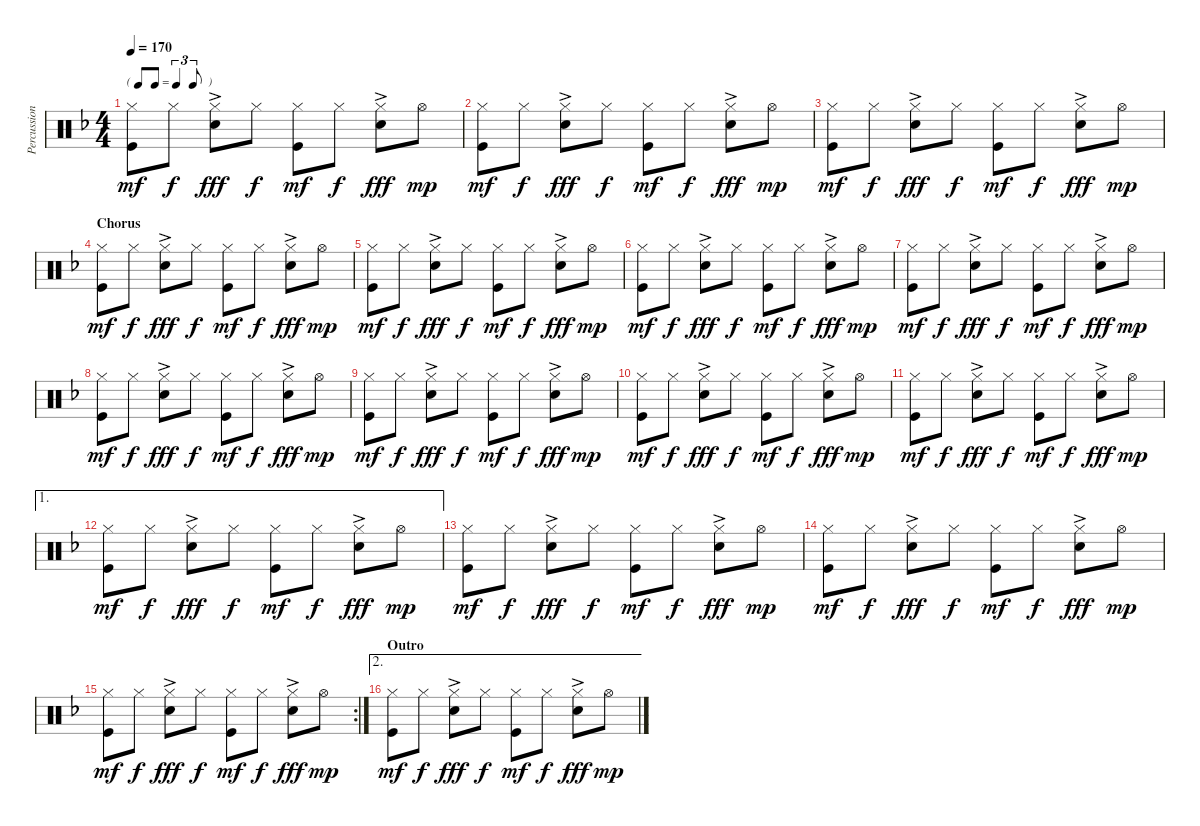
\track ("Percussion" "Percussion") {instrument percussion}
\staff {score}
\articulation defaults
\ts (4 4)
\tf triplet8th
\tempo 170
\clef neutral
\ks f
("Hi-Hat (closed)" "Kick (hit)").8{dy mf} "Hi-Hat (closed)".8{dy f} ("Hi-Hat (closed)" "Snare (hit) 2"{ac}).8{dy fff} "Hi-Hat (closed)".8{dy f} ("Hi-Hat (closed)" "Kick (hit)").8{dy mf} "Hi-Hat (closed)".8{dy f} ("Hi-Hat (closed)" "Snare (hit) 2"{ac}).8{dy fff} "Hi-Hat (open)".8{dy mp} |
("Hi-Hat (closed)" "Kick (hit)").8{dy mf} "Hi-Hat (closed)".8{dy f} ("Hi-Hat (closed)" "Snare (hit) 2"{ac}).8{dy fff} "Hi-Hat (closed)".8{dy f} ("Hi-Hat (closed)" "Kick (hit)").8{dy mf} "Hi-Hat (closed)".8{dy f} ("Hi-Hat (closed)" "Snare (hit) 2"{ac}).8{dy fff} "Hi-Hat (open)".8{dy mp} |
("Hi-Hat (closed)" "Kick (hit)").8{dy mf} "Hi-Hat (closed)".8{dy f} ("Hi-Hat (closed)" "Snare (hit) 2"{ac}).8{dy fff} "Hi-Hat (closed)".8{dy f} ("Hi-Hat (closed)" "Kick (hit)").8{dy mf} "Hi-Hat (closed)".8{dy f} ("Hi-Hat (closed)" "Snare (hit) 2"{ac}).8{dy fff} "Hi-Hat (open)".8{dy mp} |
\section ("" "Chorus")
("Hi-Hat (closed)" "Kick (hit)").8{dy mf} "Hi-Hat (closed)".8{dy f} ("Hi-Hat (closed)" "Snare (hit) 2"{ac}).8{dy fff} "Hi-Hat (closed)".8{dy f} ("Hi-Hat (closed)" "Kick (hit)").8{dy mf} "Hi-Hat (closed)".8{dy f} ("Hi-Hat (closed)" "Snare (hit) 2"{ac}).8{dy fff} "Hi-Hat (open)".8{dy mp} |
("Hi-Hat (closed)" "Kick (hit)").8{dy mf} "Hi-Hat (closed)".8{dy f} ("Hi-Hat (closed)" "Snare (hit) 2"{ac}).8{dy fff} "Hi-Hat (closed)".8{dy f} ("Hi-Hat (closed)" "Kick (hit)").8{dy mf} "Hi-Hat (closed)".8{dy f} ("Hi-Hat (closed)" "Snare (hit) 2"{ac}).8{dy fff} "Hi-Hat (open)".8{dy mp} |
("Hi-Hat (closed)" "Kick (hit)").8{dy mf} "Hi-Hat (closed)".8{dy f} ("Hi-Hat (closed)" "Snare (hit) 2"{ac}).8{dy fff} "Hi-Hat (closed)".8{dy f} ("Hi-Hat (closed)" "Kick (hit)").8{dy mf} "Hi-Hat (closed)".8{dy f} ("Hi-Hat (closed)" "Snare (hit) 2"{ac}).8{dy fff} "Hi-Hat (open)".8{dy mp} |
("Hi-Hat (closed)" "Kick (hit)").8{dy mf} "Hi-Hat (closed)".8{dy f} ("Hi-Hat (closed)" "Snare (hit) 2"{ac}).8{dy fff} "Hi-Hat (closed)".8{dy f} ("Hi-Hat (closed)" "Kick (hit)").8{dy mf} "Hi-Hat (closed)".8{dy f} ("Hi-Hat (closed)" "Snare (hit) 2"{ac}).8{dy fff} "Hi-Hat (open)".8{dy mp} |
("Hi-Hat (closed)" "Kick (hit)").8{dy mf} "Hi-Hat (closed)".8{dy f} ("Hi-Hat (closed)" "Snare (hit) 2"{ac}).8{dy fff} "Hi-Hat (closed)".8{dy f} ("Hi-Hat (closed)" "Kick (hit)").8{dy mf} "Hi-Hat (closed)".8{dy f} ("Hi-Hat (closed)" "Snare (hit) 2"{ac}).8{dy fff} "Hi-Hat (open)".8{dy mp} |
("Hi-Hat (closed)" "Kick (hit)").8{dy mf} "Hi-Hat (closed)".8{dy f} ("Hi-Hat (closed)" "Snare (hit) 2"{ac}).8{dy fff} "Hi-Hat (closed)".8{dy f} ("Hi-Hat (closed)" "Kick (hit)").8{dy mf} "Hi-Hat (closed)".8{dy f} ("Hi-Hat (closed)" "Snare (hit) 2"{ac}).8{dy fff} "Hi-Hat (open)".8{dy mp} |
("Hi-Hat (closed)" "Kick (hit)").8{dy mf} "Hi-Hat (closed)".8{dy f} ("Hi-Hat (closed)" "Snare (hit) 2"{ac}).8{dy fff} "Hi-Hat (closed)".8{dy f} ("Hi-Hat (closed)" "Kick (hit)").8{dy mf} "Hi-Hat (closed)".8{dy f} ("Hi-Hat (closed)" "Snare (hit) 2"{ac}).8{dy fff} "Hi-Hat (open)".8{dy mp} |
("Hi-Hat (closed)" "Kick (hit)").8{dy mf} "Hi-Hat (closed)".8{dy f} ("Hi-Hat (closed)" "Snare (hit) 2"{ac}).8{dy fff} "Hi-Hat (closed)".8{dy f} ("Hi-Hat (closed)" "Kick (hit)").8{dy mf} "Hi-Hat (closed)".8{dy f} ("Hi-Hat (closed)" "Snare (hit) 2"{ac}).8{dy fff} "Hi-Hat (open)".8{dy mp} |
\ae 1
("Hi-Hat (closed)" "Kick (hit)").8{dy mf} "Hi-Hat (closed)".8{dy f} ("Hi-Hat (closed)" "Snare (hit) 2"{ac}).8{dy fff} "Hi-Hat (closed)".8{dy f} ("Hi-Hat (closed)" "Kick (hit)").8{dy mf} "Hi-Hat (closed)".8{dy f} ("Hi-Hat (closed)" "Snare (hit) 2"{ac}).8{dy fff} "Hi-Hat (open)".8{dy mp} |
("Hi-Hat (closed)" "Kick (hit)").8{dy mf} "Hi-Hat (closed)".8{dy f} ("Hi-Hat (closed)" "Snare (hit) 2"{ac}).8{dy fff} "Hi-Hat (closed)".8{dy f} ("Hi-Hat (closed)" "Kick (hit)").8{dy mf} "Hi-Hat (closed)".8{dy f} ("Hi-Hat (closed)" "Snare (hit) 2"{ac}).8{dy fff} "Hi-Hat (open)".8{dy mp} |
("Hi-Hat (closed)" "Kick (hit)").8{dy mf} "Hi-Hat (closed)".8{dy f} ("Hi-Hat (closed)" "Snare (hit) 2"{ac}).8{dy fff} "Hi-Hat (closed)".8{dy f} ("Hi-Hat (closed)" "Kick (hit)").8{dy mf} "Hi-Hat (closed)".8{dy f} ("Hi-Hat (closed)" "Snare (hit) 2"{ac}).8{dy fff} "Hi-Hat (open)".8{dy mp} |
\rc 2
("Hi-Hat (closed)" "Kick (hit)").8{dy mf} "Hi-Hat (closed)".8{dy f} ("Hi-Hat (closed)" "Snare (hit) 2"{ac}).8{dy fff} "Hi-Hat (closed)".8{dy f} ("Hi-Hat (closed)" "Kick (hit)").8{dy mf} "Hi-Hat (closed)".8{dy f} ("Hi-Hat (closed)" "Snare (hit) 2"{ac}).8{dy fff} "Hi-Hat (open)".8{dy mp} |
\ae 2
\section ("" "Outro")
("Hi-Hat (closed)" "Kick (hit)").8{dy mf} "Hi-Hat (closed)".8{dy f} ("Hi-Hat (closed)" "Snare (hit) 2"{ac}).8{dy fff} "Hi-Hat (closed)".8{dy f} ("Hi-Hat (closed)" "Kick (hit)").8{dy mf} "Hi-Hat (closed)".8{dy f} ("Hi-Hat (closed)" "Snare (hit) 2"{ac}).8{dy fff} "Hi-Hat (open)".8{dy mp}
